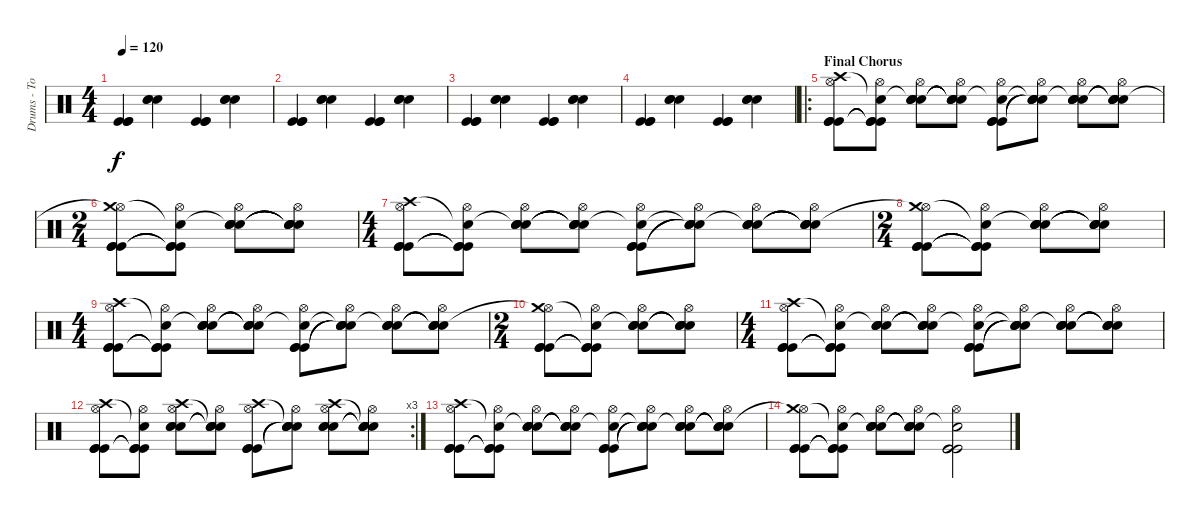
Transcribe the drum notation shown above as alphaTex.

\track ("Drums - Tom" "Drums - To") {instrument percussion}
\staff {score}
\articulation defaults
\ts (4 4)
\tempo 120
\clef neutral
\ks c
("Kick (hit)" "Kick (hit)" "Kick (hit)").4{dy f} ("Snare (hit) 2" "Snare (hit) 2" "Snare (hit) 2").4 ("Kick (hit)" "Kick (hit)" "Kick (hit)").4 ("Snare (hit) 2" "Snare (hit) 2" "Snare (hit) 2").4 |
("Kick (hit)" "Kick (hit)" "Kick (hit)").4 ("Snare (hit) 2" "Snare (hit) 2" "Snare (hit) 2").4 ("Kick (hit)" "Kick (hit)" "Kick (hit)").4 ("Snare (hit) 2" "Snare (hit) 2" "Snare (hit) 2").4 |
("Kick (hit)" "Kick (hit)" "Kick (hit)").4 ("Snare (hit) 2" "Snare (hit) 2" "Snare (hit) 2").4 ("Kick (hit)" "Kick (hit)" "Kick (hit)").4 ("Snare (hit) 2" "Snare (hit) 2" "Snare (hit) 2").4 |
("Kick (hit)" "Kick (hit)" "Kick (hit)").4 ("Snare (hit) 2" "Snare (hit) 2" "Snare (hit) 2").4 ("Kick (hit)" "Kick (hit)" "Kick (hit)").4 ("Snare (hit) 2" "Snare (hit) 2" "Snare (hit) 2").4 |
\ro
\section ("" "Final Chorus")
("Kick (hit)" "Kick (hit)" "Kick (hit)" "Hi-Hat (open)" "Crash high (hit)").8 ("Kick (hit)"{t} "Kick (hit)"{t} "Kick (hit)"{t} "Hi-Hat (open)" "Snare (hit)"{t}).8 ("Snare (hit) 2" "Snare (hit) 2" "Snare (hit) 2" "Hi-Hat (open)" "Snare (hit)"{t}).8 ("Snare (hit) 2"{t} "Snare (hit) 2"{t} "Snare (hit) 2"{t} "Hi-Hat (open)" "Snare (hit)"{t}).8 ("Kick (hit)" "Kick (hit)" "Kick (hit)" "Hi-Hat (open)" "Snare (hit)"{t}).8 ("Snare (hit)"{t} "Snare (hit)"{t} "Snare (hit)"{t} "Hi-Hat (open)" "Snare (hit)"{t}).8 ("Snare (hit) 2" "Snare (hit) 2" "Snare (hit) 2" "Hi-Hat (open)" "Snare (hit)"{t}).8 ("Snare (hit)"{t} "Snare (hit)"{t} "Snare (hit)"{t} "Hi-Hat (open)" "Snare (hit)"{t}).8 |
\ts (2 4)
("Kick (hit)" "Kick (hit)" "Kick (hit)" "Hi-Hat (open)" "Crash medium (hit)"{t}).8 ("Kick (hit)"{t} "Kick (hit)"{t} "Kick (hit)"{t} "Hi-Hat (open)" "Snare (hit)"{t}).8 ("Snare (hit) 2" "Snare (hit) 2" "Snare (hit) 2" "Hi-Hat (open)" "Snare (hit)"{t}).8 ("Snare (hit) 2"{t} "Snare (hit) 2"{t} "Snare (hit) 2"{t} "Hi-Hat (open)" "Snare (hit)"{t}).8 |
\ts (4 4)
("Kick (hit)" "Kick (hit)" "Kick (hit)" "Hi-Hat (open)" "Crash high (hit)").8 ("Kick (hit)"{t} "Kick (hit)"{t} "Kick (hit)"{t} "Hi-Hat (open)" "Snare (hit)"{t}).8 ("Snare (hit) 2" "Snare (hit) 2" "Snare (hit) 2" "Hi-Hat (open)" "Snare (hit)"{t}).8 ("Snare (hit) 2"{t} "Snare (hit) 2"{t} "Snare (hit) 2"{t} "Hi-Hat (open)" "Snare (hit)"{t}).8 ("Kick (hit)" "Kick (hit)" "Kick (hit)" "Hi-Hat (open)" "Snare (hit)"{t}).8 ("Snare (hit)"{t} "Snare (hit)"{t} "Snare (hit)"{t} "Hi-Hat (open)" "Snare (hit)"{t}).8 ("Snare (hit) 2" "Snare (hit) 2" "Snare (hit) 2" "Hi-Hat (open)" "Snare (hit)"{t}).8 ("Snare (hit)"{t} "Snare (hit)"{t} "Snare (hit)"{t} "Hi-Hat (open)" "Snare (hit)"{t}).8 |
\ts (2 4)
("Kick (hit)" "Kick (hit)" "Kick (hit)" "Hi-Hat (open)" "Crash medium (hit)"{t}).8 ("Kick (hit)"{t} "Kick (hit)"{t} "Kick (hit)"{t} "Hi-Hat (open)" "Snare (hit)"{t}).8 ("Snare (hit) 2" "Snare (hit) 2" "Snare (hit) 2" "Hi-Hat (open)" "Snare (hit)"{t}).8 ("Snare (hit) 2"{t} "Snare (hit) 2"{t} "Snare (hit) 2"{t} "Hi-Hat (open)" "Snare (hit)"{t}).8 |
\ts (4 4)
("Kick (hit)" "Kick (hit)" "Kick (hit)" "Hi-Hat (open)" "Crash high (hit)").8 ("Kick (hit)"{t} "Kick (hit)"{t} "Kick (hit)"{t} "Hi-Hat (open)" "Snare (hit)"{t}).8 ("Snare (hit) 2" "Snare (hit) 2" "Snare (hit) 2" "Hi-Hat (open)" "Snare (hit)"{t}).8 ("Snare (hit) 2"{t} "Snare (hit) 2"{t} "Snare (hit) 2"{t} "Hi-Hat (open)" "Snare (hit)"{t}).8 ("Kick (hit)" "Kick (hit)" "Kick (hit)" "Hi-Hat (open)" "Snare (hit)"{t}).8 ("Snare (hit)"{t} "Snare (hit)"{t} "Snare (hit)"{t} "Hi-Hat (open)" "Snare (hit)"{t}).8 ("Snare (hit) 2" "Snare (hit) 2" "Snare (hit) 2" "Hi-Hat (open)" "Snare (hit)"{t}).8 ("Snare (hit)"{t} "Snare (hit)"{t} "Snare (hit)"{t} "Hi-Hat (open)" "Snare (hit)"{t}).8 |
\ts (2 4)
("Kick (hit)" "Kick (hit)" "Kick (hit)" "Hi-Hat (open)" "Crash medium (hit)"{t}).8 ("Kick (hit)"{t} "Kick (hit)"{t} "Kick (hit)"{t} "Hi-Hat (open)" "Snare (hit)"{t}).8 ("Snare (hit) 2" "Snare (hit) 2" "Snare (hit) 2" "Hi-Hat (open)" "Snare (hit)"{t}).8 ("Snare (hit) 2"{t} "Snare (hit) 2"{t} "Snare (hit) 2"{t} "Hi-Hat (open)" "Snare (hit)"{t}).8 |
\ts (4 4)
("Kick (hit)" "Kick (hit)" "Kick (hit)" "Hi-Hat (open)" "Crash high (hit)").8 ("Kick (hit)"{t} "Kick (hit)"{t} "Kick (hit)"{t} "Hi-Hat (open)" "Snare (hit)"{t}).8 ("Snare (hit) 2" "Snare (hit) 2" "Snare (hit) 2" "Hi-Hat (open)" "Snare (hit)"{t}).8 ("Snare (hit) 2"{t} "Snare (hit) 2"{t} "Snare (hit) 2"{t} "Hi-Hat (open)" "Snare (hit)"{t}).8 ("Kick (hit)" "Kick (hit)" "Kick (hit)" "Hi-Hat (open)" "Snare (hit)"{t}).8 ("Snare (hit)"{t} "Snare (hit)"{t} "Snare (hit)"{t} "Hi-Hat (open)" "Snare (hit)"{t}).8 ("Snare (hit) 2" "Snare (hit) 2" "Snare (hit) 2" "Hi-Hat (open)" "Snare (hit)"{t}).8 ("Snare (hit)"{t} "Snare (hit)"{t} "Snare (hit)"{t} "Hi-Hat (open)" "Snare (hit)"{t}).8 |
\rc 3
("Kick (hit)" "Kick (hit)" "Kick (hit)" "Hi-Hat (open)" "Crash high (hit)").8 ("Kick (hit)"{t} "Kick (hit)"{t} "Kick (hit)"{t} "Hi-Hat (open)" "Snare (hit)"{t}).8 ("Snare (hit) 2" "Snare (hit) 2" "Snare (hit) 2" "Hi-Hat (open)" "Crash high (hit)").8 ("Snare (hit) 2"{t} "Snare (hit) 2"{t} "Snare (hit) 2"{t} "Hi-Hat (open)" "Snare (hit)"{t}).8 ("Kick (hit)" "Kick (hit)" "Kick (hit)" "Hi-Hat (open)" "Crash high (hit)").8 ("Snare (hit)"{t} "Snare (hit)"{t} "Snare (hit)"{t} "Hi-Hat (open)" "Snare (hit)"{t}).8 ("Snare (hit) 2" "Snare (hit) 2" "Snare (hit) 2" "Hi-Hat (open)" "Crash high (hit)").8 ("Snare (hit)"{t} "Snare (hit)"{t} "Snare (hit)"{t} "Hi-Hat (open)" "Snare (hit)"{t}).8 |
("Kick (hit)" "Kick (hit)" "Kick (hit)" "Hi-Hat (open)" "Crash high (hit)").8 ("Kick (hit)"{t} "Kick (hit)"{t} "Kick (hit)"{t} "Hi-Hat (open)" "Snare (hit)"{t}).8 ("Snare (hit) 2" "Snare (hit) 2" "Snare (hit) 2" "Hi-Hat (open)" "Snare (hit)"{t}).8 ("Snare (hit) 2"{t} "Snare (hit) 2"{t} "Snare (hit) 2"{t} "Hi-Hat (open)" "Snare (hit)"{t}).8 ("Kick (hit)" "Kick (hit)" "Kick (hit)" "Hi-Hat (open)" "Snare (hit)"{t}).8 ("Snare (hit)"{t} "Snare (hit)"{t} "Snare (hit)"{t} "Hi-Hat (open)" "Snare (hit)"{t}).8 ("Snare (hit) 2" "Snare (hit) 2" "Snare (hit) 2" "Hi-Hat (open)" "Snare (hit)"{t}).8 ("Snare (hit)"{t} "Snare (hit)"{t} "Snare (hit)"{t} "Hi-Hat (open)" "Snare (hit)"{t}).8 |
("Kick (hit)" "Kick (hit)" "Kick (hit)" "Hi-Hat (open)" "Crash medium (hit)"{t}).8 ("Kick (hit)"{t} "Kick (hit)"{t} "Kick (hit)"{t} "Hi-Hat (open)" "Snare (hit)"{t}).8 ("Snare (hit) 2" "Snare (hit) 2" "Snare (hit) 2" "Hi-Hat (open)" "Snare (hit)"{t}).8 ("Snare (hit) 2"{t} "Snare (hit) 2"{t} "Snare (hit) 2"{t} "Hi-Hat (open)" "Snare (hit)"{t}).8 ("Kick (hit)" "Kick (hit)" "Kick (hit)" "Hi-Hat (open)" "Snare (hit)"{t}).2
